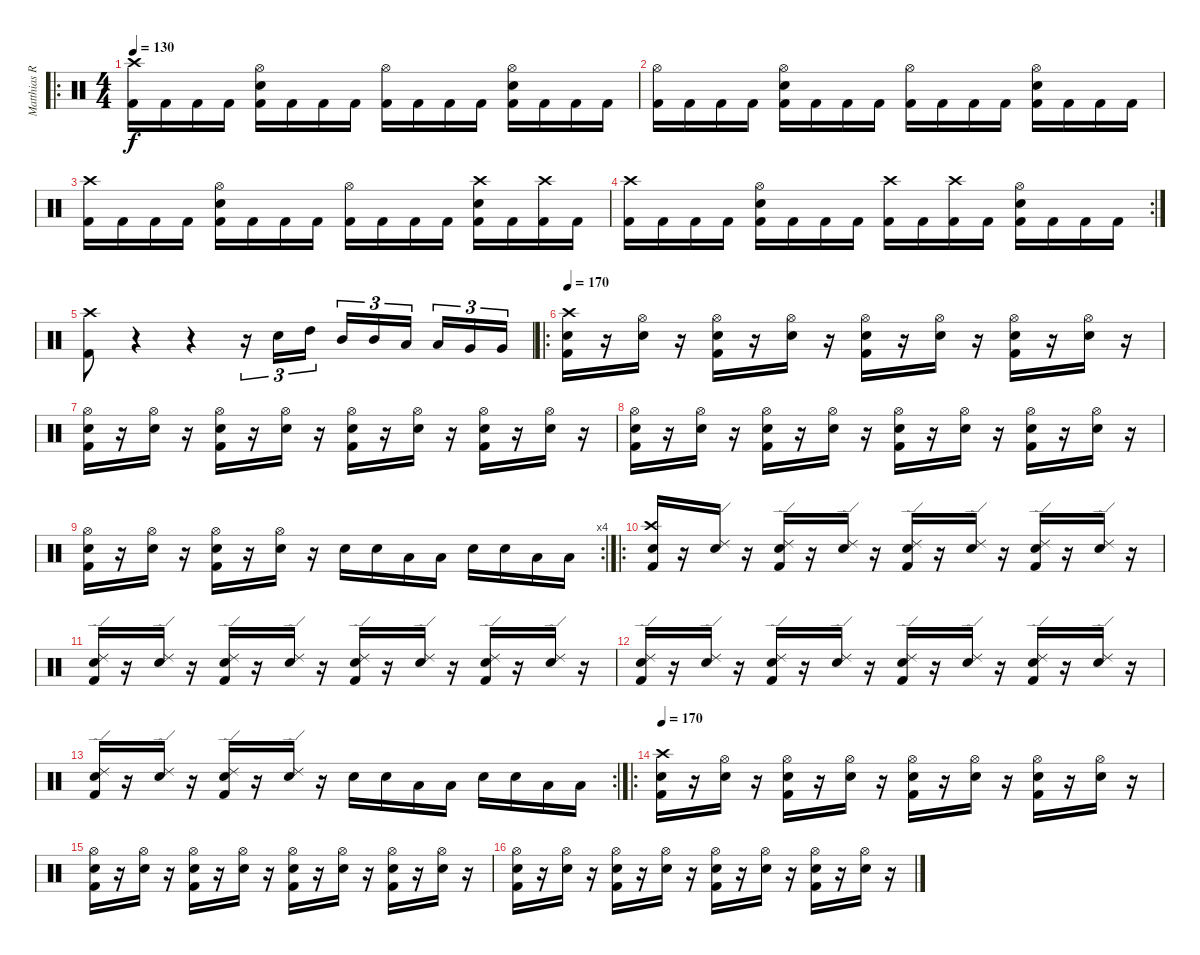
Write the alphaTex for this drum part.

\track ("Matthias Rodig" "Matthias R") {instrument percussion}
\staff {score}
\articulation defaults
\ro
\ts (4 4)
\tempo 130
\clef neutral
\ks c
("Kick (hit) 2" "Crash high (hit)").16{dy f} "Kick (hit) 2".16 "Kick (hit) 2".16 "Kick (hit) 2".16 ("Kick (hit) 2" "Snare (hit) 2" "Hi-Hat (open)").16 "Kick (hit) 2".16 "Kick (hit) 2".16 "Kick (hit) 2".16 ("Kick (hit) 2" "Hi-Hat (open)").16 "Kick (hit) 2".16 "Kick (hit) 2".16 "Kick (hit) 2".16 ("Kick (hit) 2" "Snare (hit) 2" "Hi-Hat (open)").16 "Kick (hit) 2".16 "Kick (hit) 2".16 "Kick (hit) 2".16 |
("Kick (hit) 2" "Hi-Hat (open)").16 "Kick (hit) 2".16 "Kick (hit) 2".16 "Kick (hit) 2".16 ("Kick (hit) 2" "Snare (hit) 2" "Hi-Hat (open)").16 "Kick (hit) 2".16 "Kick (hit) 2".16 "Kick (hit) 2".16 ("Kick (hit) 2" "Hi-Hat (open)").16 "Kick (hit) 2".16 "Kick (hit) 2".16 "Kick (hit) 2".16 ("Kick (hit) 2" "Snare (hit) 2" "Hi-Hat (open)").16 "Kick (hit) 2".16 "Kick (hit) 2".16 "Kick (hit) 2".16 |
("Kick (hit) 2" "Crash high (hit)").16 "Kick (hit) 2".16 "Kick (hit) 2".16 "Kick (hit) 2".16 ("Kick (hit) 2" "Snare (hit) 2" "Hi-Hat (open)").16 "Kick (hit) 2".16 "Kick (hit) 2".16 "Kick (hit) 2".16 ("Kick (hit) 2" "Hi-Hat (open)").16 "Kick (hit) 2".16 "Kick (hit) 2".16 "Kick (hit) 2".16 ("Kick (hit) 2" "Snare (hit) 2" "Crash high (hit)").16 "Kick (hit) 2".16 ("Kick (hit) 2" "Crash high (hit)").16 "Kick (hit) 2".16 |
\rc 2
("Kick (hit) 2" "Crash high (hit)").16 "Kick (hit) 2".16 "Kick (hit) 2".16 "Kick (hit) 2".16 ("Kick (hit) 2" "Snare (hit) 2" "Hi-Hat (open)").16 "Kick (hit) 2".16 "Kick (hit) 2".16 "Kick (hit) 2".16 ("Kick (hit) 2" "Crash high (hit)").16 "Kick (hit) 2".16 ("Kick (hit) 2" "Crash high (hit)").16 "Kick (hit) 2".16 ("Kick (hit) 2" "Snare (hit) 2" "Hi-Hat (open)").16 "Kick (hit) 2".16 "Kick (hit) 2".16 "Kick (hit) 2".16 |
("Kick (hit) 2" "Crash high (hit)").8 r.4 r.4 r.16{tu (3 2)} "Electric Snare (hit)".16{tu (3 2)} "High Tom (hit)".16{tu (3 2)} "Mid Tom (hit)".16{tu (3 2)} "Mid Tom (hit)".16{tu (3 2)} "Low Tom (hit)".16{tu (3 2) beam splitsecondary} "Low Tom (hit)".16{tu (3 2)} "Very Low Tom (hit)".16{tu (3 2)} "Very Low Tom (hit)".16{tu (3 2)} |
\ro
\tempo 170
("Kick (hit) 2" "Electric Snare (hit)" "Crash high (hit)").16 r.16 ("Electric Snare (hit)" "Hi-Hat (open)").16 r.16 ("Kick (hit) 2" "Electric Snare (hit)" "Hi-Hat (open)").16 r.16 ("Electric Snare (hit)" "Hi-Hat (open)").16 r.16 ("Kick (hit) 2" "Electric Snare (hit)" "Hi-Hat (open)").16 r.16 ("Electric Snare (hit)" "Hi-Hat (open)").16 r.16 ("Kick (hit) 2" "Electric Snare (hit)" "Hi-Hat (open)").16 r.16 ("Electric Snare (hit)" "Hi-Hat (open)").16 r.16 |
("Kick (hit) 2" "Electric Snare (hit)" "Hi-Hat (open)").16 r.16 ("Electric Snare (hit)" "Hi-Hat (open)").16 r.16 ("Kick (hit) 2" "Electric Snare (hit)" "Hi-Hat (open)").16 r.16 ("Electric Snare (hit)" "Hi-Hat (open)").16 r.16 ("Kick (hit) 2" "Electric Snare (hit)" "Hi-Hat (open)").16 r.16 ("Electric Snare (hit)" "Hi-Hat (open)").16 r.16 ("Kick (hit) 2" "Electric Snare (hit)" "Hi-Hat (open)").16 r.16 ("Electric Snare (hit)" "Hi-Hat (open)").16 r.16 |
("Kick (hit) 2" "Electric Snare (hit)" "Hi-Hat (open)").16 r.16 ("Electric Snare (hit)" "Hi-Hat (open)").16 r.16 ("Kick (hit) 2" "Electric Snare (hit)" "Hi-Hat (open)").16 r.16 ("Electric Snare (hit)" "Hi-Hat (open)").16 r.16 ("Kick (hit) 2" "Electric Snare (hit)" "Hi-Hat (open)").16 r.16 ("Electric Snare (hit)" "Hi-Hat (open)").16 r.16 ("Kick (hit) 2" "Electric Snare (hit)" "Hi-Hat (open)").16 r.16 ("Electric Snare (hit)" "Hi-Hat (open)").16 r.16 |
\rc 4
("Kick (hit) 2" "Electric Snare (hit)" "Hi-Hat (open)").16 r.16 ("Electric Snare (hit)" "Hi-Hat (open)").16 r.16 ("Kick (hit) 2" "Electric Snare (hit)" "Hi-Hat (open)").16 r.16 ("Electric Snare (hit)" "Hi-Hat (open)").16 r.16 "Electric Snare (hit)".16 "Electric Snare (hit)".16 "Low Tom (hit)".16 "Low Tom (hit)".16 "Electric Snare (hit)".16 "Electric Snare (hit)".16 "Low Tom (hit)".16 "Low Tom (hit)".16 |
\ro
("Kick (hit) 2" "Electric Snare (hit)" "Crash high (hit)").16 r.16 ("Electric Snare (hit)" "Ride (edge) 2").16 r.16 ("Kick (hit) 2" "Electric Snare (hit)" "Ride (edge) 2").16 r.16 ("Electric Snare (hit)" "Ride (edge) 2").16 r.16 ("Kick (hit) 2" "Electric Snare (hit)" "Ride (edge) 2").16 r.16 ("Electric Snare (hit)" "Ride (edge) 2").16 r.16 ("Kick (hit) 2" "Electric Snare (hit)" "Ride (edge) 2").16 r.16 ("Electric Snare (hit)" "Ride (edge) 2").16 r.16 |
("Kick (hit) 2" "Electric Snare (hit)" "Ride (edge) 2").16 r.16 ("Electric Snare (hit)" "Ride (edge) 2").16 r.16 ("Kick (hit) 2" "Electric Snare (hit)" "Ride (edge) 2").16 r.16 ("Electric Snare (hit)" "Ride (edge) 2").16 r.16 ("Kick (hit) 2" "Electric Snare (hit)" "Ride (edge) 2").16 r.16 ("Electric Snare (hit)" "Ride (edge) 2").16 r.16 ("Kick (hit) 2" "Electric Snare (hit)" "Ride (edge) 2").16 r.16 ("Electric Snare (hit)" "Ride (edge) 2").16 r.16 |
("Kick (hit) 2" "Electric Snare (hit)" "Ride (edge) 2").16 r.16 ("Electric Snare (hit)" "Ride (edge) 2").16 r.16 ("Kick (hit) 2" "Electric Snare (hit)" "Ride (edge) 2").16 r.16 ("Electric Snare (hit)" "Ride (edge) 2").16 r.16 ("Kick (hit) 2" "Electric Snare (hit)" "Ride (edge) 2").16 r.16 ("Electric Snare (hit)" "Ride (edge) 2").16 r.16 ("Kick (hit) 2" "Electric Snare (hit)" "Ride (edge) 2").16 r.16 ("Electric Snare (hit)" "Ride (edge) 2").16 r.16 |
\rc 2
("Kick (hit) 2" "Electric Snare (hit)" "Ride (edge) 2").16 r.16 ("Electric Snare (hit)" "Ride (edge) 2").16 r.16 ("Kick (hit) 2" "Electric Snare (hit)" "Ride (edge) 2").16 r.16 ("Electric Snare (hit)" "Ride (edge) 2").16 r.16 "Electric Snare (hit)".16 "Electric Snare (hit)".16 "Low Tom (hit)".16 "Low Tom (hit)".16 "Electric Snare (hit)".16 "Electric Snare (hit)".16 "Low Tom (hit)".16 "Low Tom (hit)".16 |
\ro
\tempo 170
("Kick (hit) 2" "Electric Snare (hit)" "Crash high (hit)").16 r.16 ("Electric Snare (hit)" "Hi-Hat (open)").16 r.16 ("Kick (hit) 2" "Electric Snare (hit)" "Hi-Hat (open)").16 r.16 ("Electric Snare (hit)" "Hi-Hat (open)").16 r.16 ("Kick (hit) 2" "Electric Snare (hit)" "Hi-Hat (open)").16 r.16 ("Electric Snare (hit)" "Hi-Hat (open)").16 r.16 ("Kick (hit) 2" "Electric Snare (hit)" "Hi-Hat (open)").16 r.16 ("Electric Snare (hit)" "Hi-Hat (open)").16 r.16 |
("Kick (hit) 2" "Electric Snare (hit)" "Hi-Hat (open)").16 r.16 ("Electric Snare (hit)" "Hi-Hat (open)").16 r.16 ("Kick (hit) 2" "Electric Snare (hit)" "Hi-Hat (open)").16 r.16 ("Electric Snare (hit)" "Hi-Hat (open)").16 r.16 ("Kick (hit) 2" "Electric Snare (hit)" "Hi-Hat (open)").16 r.16 ("Electric Snare (hit)" "Hi-Hat (open)").16 r.16 ("Kick (hit) 2" "Electric Snare (hit)" "Hi-Hat (open)").16 r.16 ("Electric Snare (hit)" "Hi-Hat (open)").16 r.16 |
("Kick (hit) 2" "Electric Snare (hit)" "Hi-Hat (open)").16 r.16 ("Electric Snare (hit)" "Hi-Hat (open)").16 r.16 ("Kick (hit) 2" "Electric Snare (hit)" "Hi-Hat (open)").16 r.16 ("Electric Snare (hit)" "Hi-Hat (open)").16 r.16 ("Kick (hit) 2" "Electric Snare (hit)" "Hi-Hat (open)").16 r.16 ("Electric Snare (hit)" "Hi-Hat (open)").16 r.16 ("Kick (hit) 2" "Electric Snare (hit)" "Hi-Hat (open)").16 r.16 ("Electric Snare (hit)" "Hi-Hat (open)").16 r.16
